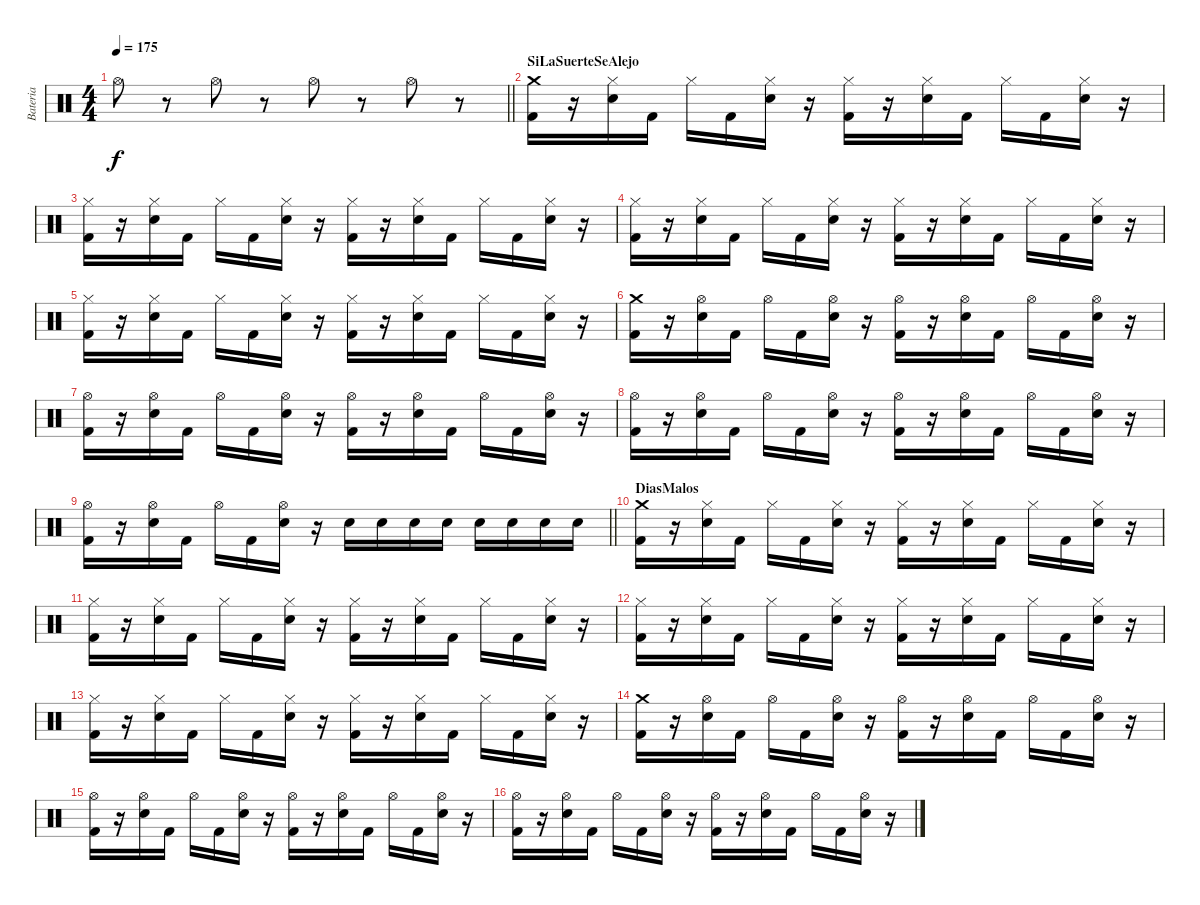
\track ("Bateria" "Bateria") {instrument percussion}
\staff {score}
\articulation defaults
\ts (4 4)
\tempo 175
\clef neutral
\barLineRight lightlight
\ks c "Hi-Hat (open)".8{dy f}
r.8 "Hi-Hat (open)".8 r.8 "Hi-Hat (open)".8 r.8 "Hi-Hat (open)".8 r.8 |
\section ("" "SiLaSuerteSeAlejo")
("Crash medium (hit)" "Kick (hit) 2").16 r.16 ("Hi-Hat (closed)" "Snare (hit) 2").16 "Kick (hit) 2".16 "Hi-Hat (closed)".16 "Kick (hit) 2".16 ("Hi-Hat (closed)" "Snare (hit) 2").16 r.16 ("Hi-Hat (closed)" "Kick (hit) 2").16 r.16 ("Hi-Hat (closed)" "Snare (hit) 2").16 "Kick (hit) 2".16 "Hi-Hat (closed)".16 "Kick (hit) 2".16 ("Hi-Hat (closed)" "Snare (hit) 2").16 r.16 |
("Hi-Hat (closed)" "Kick (hit) 2").16 r.16 ("Hi-Hat (closed)" "Snare (hit) 2").16 "Kick (hit) 2".16 "Hi-Hat (closed)".16 "Kick (hit) 2".16 ("Hi-Hat (closed)" "Snare (hit) 2").16 r.16 ("Hi-Hat (closed)" "Kick (hit) 2").16 r.16 ("Hi-Hat (closed)" "Snare (hit) 2").16 "Kick (hit) 2".16 "Hi-Hat (closed)".16 "Kick (hit) 2".16 ("Hi-Hat (closed)" "Snare (hit) 2").16 r.16 |
("Hi-Hat (closed)" "Kick (hit) 2").16 r.16 ("Hi-Hat (closed)" "Snare (hit) 2").16 "Kick (hit) 2".16 "Hi-Hat (closed)".16 "Kick (hit) 2".16 ("Hi-Hat (closed)" "Snare (hit) 2").16 r.16 ("Hi-Hat (closed)" "Kick (hit) 2").16 r.16 ("Hi-Hat (closed)" "Snare (hit) 2").16 "Kick (hit) 2".16 "Hi-Hat (closed)".16 "Kick (hit) 2".16 ("Hi-Hat (closed)" "Snare (hit) 2").16 r.16 |
("Hi-Hat (closed)" "Kick (hit) 2").16 r.16 ("Hi-Hat (closed)" "Snare (hit) 2").16 "Kick (hit) 2".16 "Hi-Hat (closed)".16 "Kick (hit) 2".16 ("Hi-Hat (closed)" "Snare (hit) 2").16 r.16 ("Hi-Hat (closed)" "Kick (hit) 2").16 r.16 ("Hi-Hat (closed)" "Snare (hit) 2").16 "Kick (hit) 2".16 "Hi-Hat (closed)".16 "Kick (hit) 2".16 ("Hi-Hat (closed)" "Snare (hit) 2").16 r.16 |
("Crash medium (hit)" "Kick (hit) 2").16 r.16 ("Hi-Hat (open)" "Snare (hit) 2").16 "Kick (hit) 2".16 "Hi-Hat (open)".16 "Kick (hit) 2".16 ("Hi-Hat (open)" "Snare (hit) 2").16 r.16 ("Hi-Hat (open)" "Kick (hit) 2").16 r.16 ("Hi-Hat (open)" "Snare (hit) 2").16 "Kick (hit) 2".16 "Hi-Hat (open)".16 "Kick (hit) 2".16 ("Hi-Hat (open)" "Snare (hit) 2").16 r.16 |
("Hi-Hat (open)" "Kick (hit) 2").16 r.16 ("Hi-Hat (open)" "Snare (hit) 2").16 "Kick (hit) 2".16 "Hi-Hat (open)".16 "Kick (hit) 2".16 ("Hi-Hat (open)" "Snare (hit) 2").16 r.16 ("Hi-Hat (open)" "Kick (hit) 2").16 r.16 ("Hi-Hat (open)" "Snare (hit) 2").16 "Kick (hit) 2".16 "Hi-Hat (open)".16 "Kick (hit) 2".16 ("Hi-Hat (open)" "Snare (hit) 2").16 r.16 |
("Hi-Hat (open)" "Kick (hit) 2").16 r.16 ("Hi-Hat (open)" "Snare (hit) 2").16 "Kick (hit) 2".16 "Hi-Hat (open)".16 "Kick (hit) 2".16 ("Hi-Hat (open)" "Snare (hit) 2").16 r.16 ("Hi-Hat (open)" "Kick (hit) 2").16 r.16 ("Hi-Hat (open)" "Snare (hit) 2").16 "Kick (hit) 2".16 "Hi-Hat (open)".16 "Kick (hit) 2".16 ("Hi-Hat (open)" "Snare (hit) 2").16 r.16 |
\barLineRight lightlight
("Hi-Hat (open)" "Kick (hit) 2").16 r.16 ("Hi-Hat (open)" "Snare (hit) 2").16 "Kick (hit) 2".16 "Hi-Hat (open)".16 "Kick (hit) 2".16 ("Hi-Hat (open)" "Snare (hit) 2").16 r.16 "Snare (hit) 2".16 "Snare (hit) 2".16 "Snare (hit) 2".16 "Snare (hit) 2".16 "Snare (hit) 2".16 "Snare (hit) 2".16 "Snare (hit) 2".16 "Snare (hit) 2".16 |
\section ("" "DiasMalos")
("Crash medium (hit)" "Kick (hit) 2").16 r.16 ("Hi-Hat (closed)" "Snare (hit) 2").16 "Kick (hit) 2".16 "Hi-Hat (closed)".16 "Kick (hit) 2".16 ("Hi-Hat (closed)" "Snare (hit) 2").16 r.16 ("Hi-Hat (closed)" "Kick (hit) 2").16 r.16 ("Hi-Hat (closed)" "Snare (hit) 2").16 "Kick (hit) 2".16 "Hi-Hat (closed)".16 "Kick (hit) 2".16 ("Hi-Hat (closed)" "Snare (hit) 2").16 r.16 |
("Hi-Hat (closed)" "Kick (hit) 2").16 r.16 ("Hi-Hat (closed)" "Snare (hit) 2").16 "Kick (hit) 2".16 "Hi-Hat (closed)".16 "Kick (hit) 2".16 ("Hi-Hat (closed)" "Snare (hit) 2").16 r.16 ("Hi-Hat (closed)" "Kick (hit) 2").16 r.16 ("Hi-Hat (closed)" "Snare (hit) 2").16 "Kick (hit) 2".16 "Hi-Hat (closed)".16 "Kick (hit) 2".16 ("Hi-Hat (closed)" "Snare (hit) 2").16 r.16 |
("Hi-Hat (closed)" "Kick (hit) 2").16 r.16 ("Hi-Hat (closed)" "Snare (hit) 2").16 "Kick (hit) 2".16 "Hi-Hat (closed)".16 "Kick (hit) 2".16 ("Hi-Hat (closed)" "Snare (hit) 2").16 r.16 ("Hi-Hat (closed)" "Kick (hit) 2").16 r.16 ("Hi-Hat (closed)" "Snare (hit) 2").16 "Kick (hit) 2".16 "Hi-Hat (closed)".16 "Kick (hit) 2".16 ("Hi-Hat (closed)" "Snare (hit) 2").16 r.16 |
("Hi-Hat (closed)" "Kick (hit) 2").16 r.16 ("Hi-Hat (closed)" "Snare (hit) 2").16 "Kick (hit) 2".16 "Hi-Hat (closed)".16 "Kick (hit) 2".16 ("Hi-Hat (closed)" "Snare (hit) 2").16 r.16 ("Hi-Hat (closed)" "Kick (hit) 2").16 r.16 ("Hi-Hat (closed)" "Snare (hit) 2").16 "Kick (hit) 2".16 "Hi-Hat (closed)".16 "Kick (hit) 2".16 ("Hi-Hat (closed)" "Snare (hit) 2").16 r.16 |
("Crash medium (hit)" "Kick (hit) 2").16 r.16 ("Hi-Hat (open)" "Snare (hit) 2").16 "Kick (hit) 2".16 "Hi-Hat (open)".16 "Kick (hit) 2".16 ("Hi-Hat (open)" "Snare (hit) 2").16 r.16 ("Hi-Hat (open)" "Kick (hit) 2").16 r.16 ("Hi-Hat (open)" "Snare (hit) 2").16 "Kick (hit) 2".16 "Hi-Hat (open)".16 "Kick (hit) 2".16 ("Hi-Hat (open)" "Snare (hit) 2").16 r.16 |
("Hi-Hat (open)" "Kick (hit) 2").16 r.16 ("Hi-Hat (open)" "Snare (hit) 2").16 "Kick (hit) 2".16 "Hi-Hat (open)".16 "Kick (hit) 2".16 ("Hi-Hat (open)" "Snare (hit) 2").16 r.16 ("Hi-Hat (open)" "Kick (hit) 2").16 r.16 ("Hi-Hat (open)" "Snare (hit) 2").16 "Kick (hit) 2".16 "Hi-Hat (open)".16 "Kick (hit) 2".16 ("Hi-Hat (open)" "Snare (hit) 2").16 r.16 |
("Hi-Hat (open)" "Kick (hit) 2").16 r.16 ("Hi-Hat (open)" "Snare (hit) 2").16 "Kick (hit) 2".16 "Hi-Hat (open)".16 "Kick (hit) 2".16 ("Hi-Hat (open)" "Snare (hit) 2").16 r.16 ("Hi-Hat (open)" "Kick (hit) 2").16 r.16 ("Hi-Hat (open)" "Snare (hit) 2").16 "Kick (hit) 2".16 "Hi-Hat (open)".16 "Kick (hit) 2".16 ("Hi-Hat (open)" "Snare (hit) 2").16 r.16
